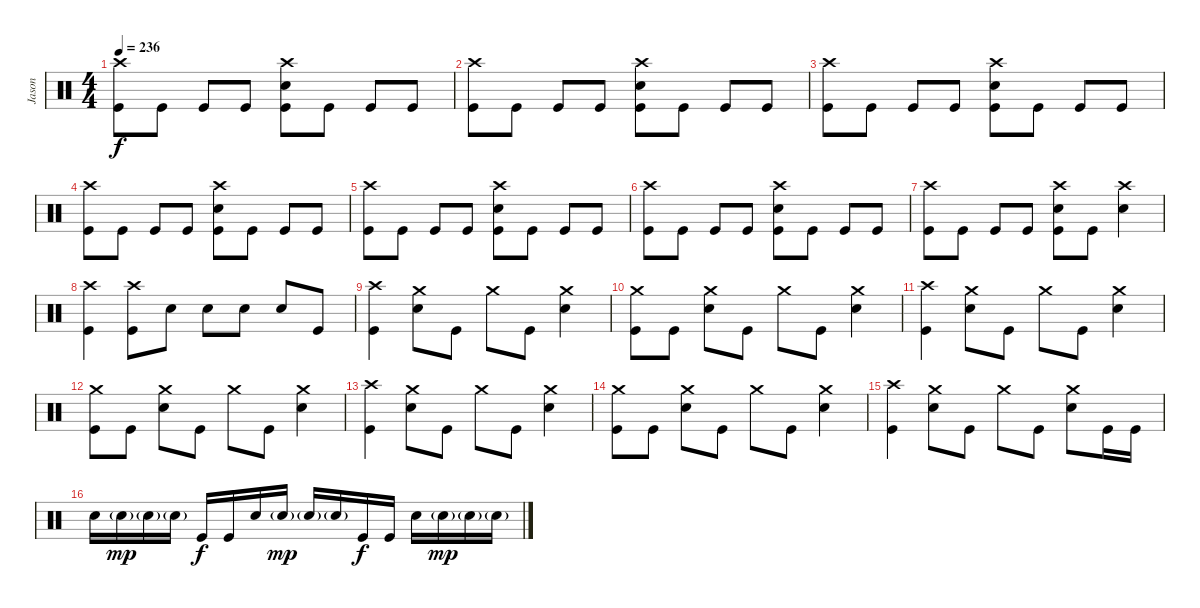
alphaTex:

\track ("Jason" "Jason") {instrument percussion}
\staff {score}
\articulation defaults
\ts (4 4)
\tempo 236
\clef neutral
\ks c
("Crash high (hit)" "Kick (hit)").8{dy f} "Kick (hit)".8 "Kick (hit)".8 "Kick (hit)".8 ("Crash high (hit)" "Electric Snare (hit)" "Kick (hit)").8 "Kick (hit)".8 "Kick (hit)".8 "Kick (hit)".8 |
("Crash high (hit)" "Kick (hit)").8 "Kick (hit)".8 "Kick (hit)".8 "Kick (hit)".8 ("Crash high (hit)" "Electric Snare (hit)" "Kick (hit)").8 "Kick (hit)".8 "Kick (hit)".8 "Kick (hit)".8 |
("Crash high (hit)" "Kick (hit)").8 "Kick (hit)".8 "Kick (hit)".8 "Kick (hit)".8 ("Crash high (hit)" "Electric Snare (hit)" "Kick (hit)").8 "Kick (hit)".8 "Kick (hit)".8 "Kick (hit)".8 |
("Crash high (hit)" "Kick (hit)").8 "Kick (hit)".8 "Kick (hit)".8 "Kick (hit)".8 ("Crash high (hit)" "Electric Snare (hit)" "Kick (hit)").8 "Kick (hit)".8 "Kick (hit)".8 "Kick (hit)".8 |
("Crash high (hit)" "Kick (hit)").8 "Kick (hit)".8 "Kick (hit)".8 "Kick (hit)".8 ("Crash high (hit)" "Electric Snare (hit)" "Kick (hit)").8 "Kick (hit)".8 "Kick (hit)".8 "Kick (hit)".8 |
("Crash high (hit)" "Kick (hit)").8 "Kick (hit)".8 "Kick (hit)".8 "Kick (hit)".8 ("Crash high (hit)" "Electric Snare (hit)" "Kick (hit)").8 "Kick (hit)".8 "Kick (hit)".8 "Kick (hit)".8 |
("Crash high (hit)" "Kick (hit)").8 "Kick (hit)".8 "Kick (hit)".8 "Kick (hit)".8 ("Crash high (hit)" "Electric Snare (hit)" "Kick (hit)").8 "Kick (hit)".8 ("Crash high (hit)" "Electric Snare (hit)").4 |
("Crash high (hit)" "Kick (hit)").4 ("Crash high (hit)" "Kick (hit)").8 "Electric Snare (hit)".8 "Electric Snare (hit)".8 "Electric Snare (hit)".8 "Electric Snare (hit)".8 "Kick (hit)".8 |
("Crash high (hit)" "Kick (hit)").4 ("Crash medium (hit)" "Electric Snare (hit)").8 "Kick (hit)".8 "Crash medium (hit)".8 "Kick (hit)".8 ("Crash medium (hit)" "Electric Snare (hit)").4 |
("Crash medium (hit)" "Kick (hit)").8 "Kick (hit)".8 ("Crash medium (hit)" "Electric Snare (hit)").8 "Kick (hit)".8 "Crash medium (hit)".8 "Kick (hit)".8 ("Crash medium (hit)" "Electric Snare (hit)").4 |
("Crash high (hit)" "Kick (hit)").4 ("Crash medium (hit)" "Electric Snare (hit)").8 "Kick (hit)".8 "Crash medium (hit)".8 "Kick (hit)".8 ("Crash medium (hit)" "Electric Snare (hit)").4 |
("Crash medium (hit)" "Kick (hit)").8 "Kick (hit)".8 ("Crash medium (hit)" "Electric Snare (hit)").8 "Kick (hit)".8 "Crash medium (hit)".8 "Kick (hit)".8 ("Crash medium (hit)" "Electric Snare (hit)").4 |
("Crash high (hit)" "Kick (hit)").4 ("Crash medium (hit)" "Electric Snare (hit)").8 "Kick (hit)".8 "Crash medium (hit)".8 "Kick (hit)".8 ("Crash medium (hit)" "Electric Snare (hit)").4 |
("Crash medium (hit)" "Kick (hit)").8 "Kick (hit)".8 ("Crash medium (hit)" "Electric Snare (hit)").8 "Kick (hit)".8 "Crash medium (hit)".8 "Kick (hit)".8 ("Crash medium (hit)" "Electric Snare (hit)").4 |
("Crash high (hit)" "Kick (hit)").4 ("Crash medium (hit)" "Electric Snare (hit)").8 "Kick (hit)".8 "Crash medium (hit)".8 "Kick (hit)".8 ("Crash medium (hit)" "Electric Snare (hit)").8 "Kick (hit)".16 "Kick (hit)".16 |
"Electric Snare (hit)".16 "Electric Snare (hit)"{g}.16{dy mp} "Electric Snare (hit)"{g}.16 "Electric Snare (hit)"{g}.16 "Kick (hit)".16{dy f} "Kick (hit)".16 "Electric Snare (hit)".16 "Electric Snare (hit)"{g}.16{dy mp} "Electric Snare (hit)"{g}.16 "Electric Snare (hit)"{g}.16 "Kick (hit)".16{dy f} "Kick (hit)".16 "Electric Snare (hit)".16 "Electric Snare (hit)"{g}.16{dy mp} "Electric Snare (hit)"{g}.16 "Electric Snare (hit)"{g}.16
